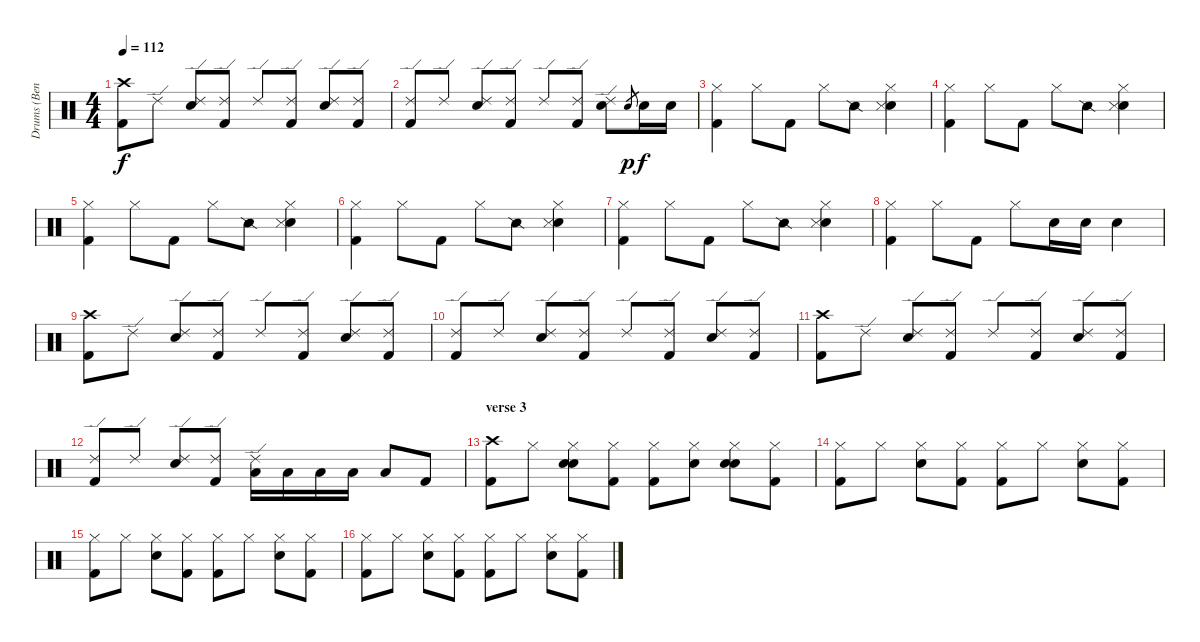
\track ("Drums (Bengerg)" "Drums (Ben") {instrument percussion}
\staff {score}
\articulation defaults
\ts (4 4)
\tempo 112
\clef neutral
\ks c
("Crash high (hit)" "Kick (hit) 2").8{dy f} "Ride (edge) 2".8 ("Ride (edge) 2" "Electric Snare (hit)").8 ("Ride (edge) 2" "Kick (hit) 2").8 "Ride (edge) 2".8 ("Ride (edge) 2" "Kick (hit) 2").8 ("Ride (edge) 2" "Electric Snare (hit)").8 ("Ride (edge) 2" "Kick (hit) 2").8 |
("Ride (edge) 2" "Kick (hit) 2").8 "Ride (edge) 2".8 ("Ride (edge) 2" "Electric Snare (hit)").8 ("Ride (edge) 2" "Kick (hit) 2").8 "Ride (edge) 2".8 ("Ride (edge) 2" "Kick (hit) 2").8 ("Ride (edge) 2" "Electric Snare (hit)").8 "Electric Snare (hit)".8{gr dy p} "Electric Snare (hit)".16{dy f} "Electric Snare (hit)".16 |
("Hi-Hat (closed)" "Kick (hit) 2").4 "Hi-Hat (closed)".8 "Kick (hit) 2".8 "Hi-Hat (closed)".8 "Snare (side stick) 2".8 ("Hi-Hat (closed)" "Electric Snare (hit)" "Metronome (hit)").4 |
("Hi-Hat (closed)" "Kick (hit) 2").4 "Hi-Hat (closed)".8 "Kick (hit) 2".8 "Hi-Hat (closed)".8 "Snare (side stick) 2".8 ("Hi-Hat (closed)" "Electric Snare (hit)" "Metronome (hit)").4 |
("Hi-Hat (closed)" "Kick (hit) 2").4 "Hi-Hat (closed)".8 "Kick (hit) 2".8 "Hi-Hat (closed)".8 "Snare (side stick) 2".8 ("Hi-Hat (closed)" "Electric Snare (hit)" "Metronome (hit)").4 |
("Hi-Hat (closed)" "Kick (hit) 2").4 "Hi-Hat (closed)".8 "Kick (hit) 2".8 "Hi-Hat (closed)".8 "Snare (side stick) 2".8 ("Hi-Hat (closed)" "Electric Snare (hit)" "Metronome (hit)").4 |
("Hi-Hat (closed)" "Kick (hit) 2").4 "Hi-Hat (closed)".8 "Kick (hit) 2".8 "Hi-Hat (closed)".8 "Snare (side stick) 2".8 ("Hi-Hat (closed)" "Electric Snare (hit)" "Metronome (hit)").4 |
("Hi-Hat (closed)" "Kick (hit) 2").4 "Hi-Hat (closed)".8 "Kick (hit) 2".8 "Hi-Hat (closed)".8 "Electric Snare (hit)".16 "Electric Snare (hit)".16 "Electric Snare (hit)".4 |
("Crash high (hit)" "Kick (hit) 2").8 "Ride (edge) 2".8 ("Ride (edge) 2" "Electric Snare (hit)").8 ("Ride (edge) 2" "Kick (hit) 2").8 "Ride (edge) 2".8 ("Ride (edge) 2" "Kick (hit) 2").8 ("Ride (edge) 2" "Electric Snare (hit)").8 ("Ride (edge) 2" "Kick (hit) 2").8 |
("Ride (edge) 2" "Kick (hit) 2").8 "Ride (edge) 2".8 ("Ride (edge) 2" "Electric Snare (hit)").8 ("Ride (edge) 2" "Kick (hit) 2").8 "Ride (edge) 2".8 ("Ride (edge) 2" "Kick (hit) 2").8 ("Ride (edge) 2" "Electric Snare (hit)").8 ("Ride (edge) 2" "Kick (hit) 2").8 |
("Crash high (hit)" "Kick (hit) 2").8 "Ride (edge) 2".8 ("Ride (edge) 2" "Electric Snare (hit)").8 ("Ride (edge) 2" "Kick (hit) 2").8 "Ride (edge) 2".8 ("Ride (edge) 2" "Kick (hit) 2").8 ("Ride (edge) 2" "Electric Snare (hit)").8 ("Ride (edge) 2" "Kick (hit) 2").8 |
("Ride (edge) 2" "Kick (hit) 2").8 "Ride (edge) 2".8 ("Ride (edge) 2" "Electric Snare (hit)").8 ("Ride (edge) 2" "Kick (hit) 2").8 ("Ride (edge) 2" "Low Tom (hit)").16 "Low Tom (hit)".16 "Low Tom (hit)".16 "Low Tom (hit)".16 "Low Tom (hit)".8 "Kick (hit) 2".8 |
\section ("" "verse 3")
("Crash high (hit)" "Kick (hit) 2").8 "Hi-Hat (closed)".8 ("Hand Clap (hit)" "Hi-Hat (closed)" "Electric Snare (hit)").8 ("Hi-Hat (closed)" "Kick (hit) 2").8 ("Hi-Hat (closed)" "Kick (hit) 2").8 ("Hand Clap (hit)" "Hi-Hat (closed)").8 ("Hand Clap (hit)" "Hi-Hat (closed)" "Electric Snare (hit)").8 ("Hi-Hat (closed)" "Kick (hit) 2").8 |
("Hi-Hat (closed)" "Kick (hit) 2").8 "Hi-Hat (closed)".8 ("Hi-Hat (closed)" "Electric Snare (hit)").8 ("Hi-Hat (closed)" "Kick (hit) 2").8 ("Hi-Hat (closed)" "Kick (hit) 2").8 "Hi-Hat (closed)".8 ("Hi-Hat (closed)" "Electric Snare (hit)").8 ("Hi-Hat (closed)" "Kick (hit) 2").8 |
("Hi-Hat (closed)" "Kick (hit) 2").8 "Hi-Hat (closed)".8 ("Hi-Hat (closed)" "Electric Snare (hit)").8 ("Hi-Hat (closed)" "Kick (hit) 2").8 ("Hi-Hat (closed)" "Kick (hit) 2").8 "Hi-Hat (closed)".8 ("Hi-Hat (closed)" "Electric Snare (hit)").8 ("Hi-Hat (closed)" "Kick (hit) 2").8 |
("Hi-Hat (closed)" "Kick (hit) 2").8 "Hi-Hat (closed)".8 ("Hi-Hat (closed)" "Electric Snare (hit)").8 ("Hi-Hat (closed)" "Kick (hit) 2").8 ("Hi-Hat (closed)" "Kick (hit) 2").8 "Hi-Hat (closed)".8 ("Hi-Hat (closed)" "Electric Snare (hit)").8 ("Hi-Hat (closed)" "Kick (hit) 2").8
